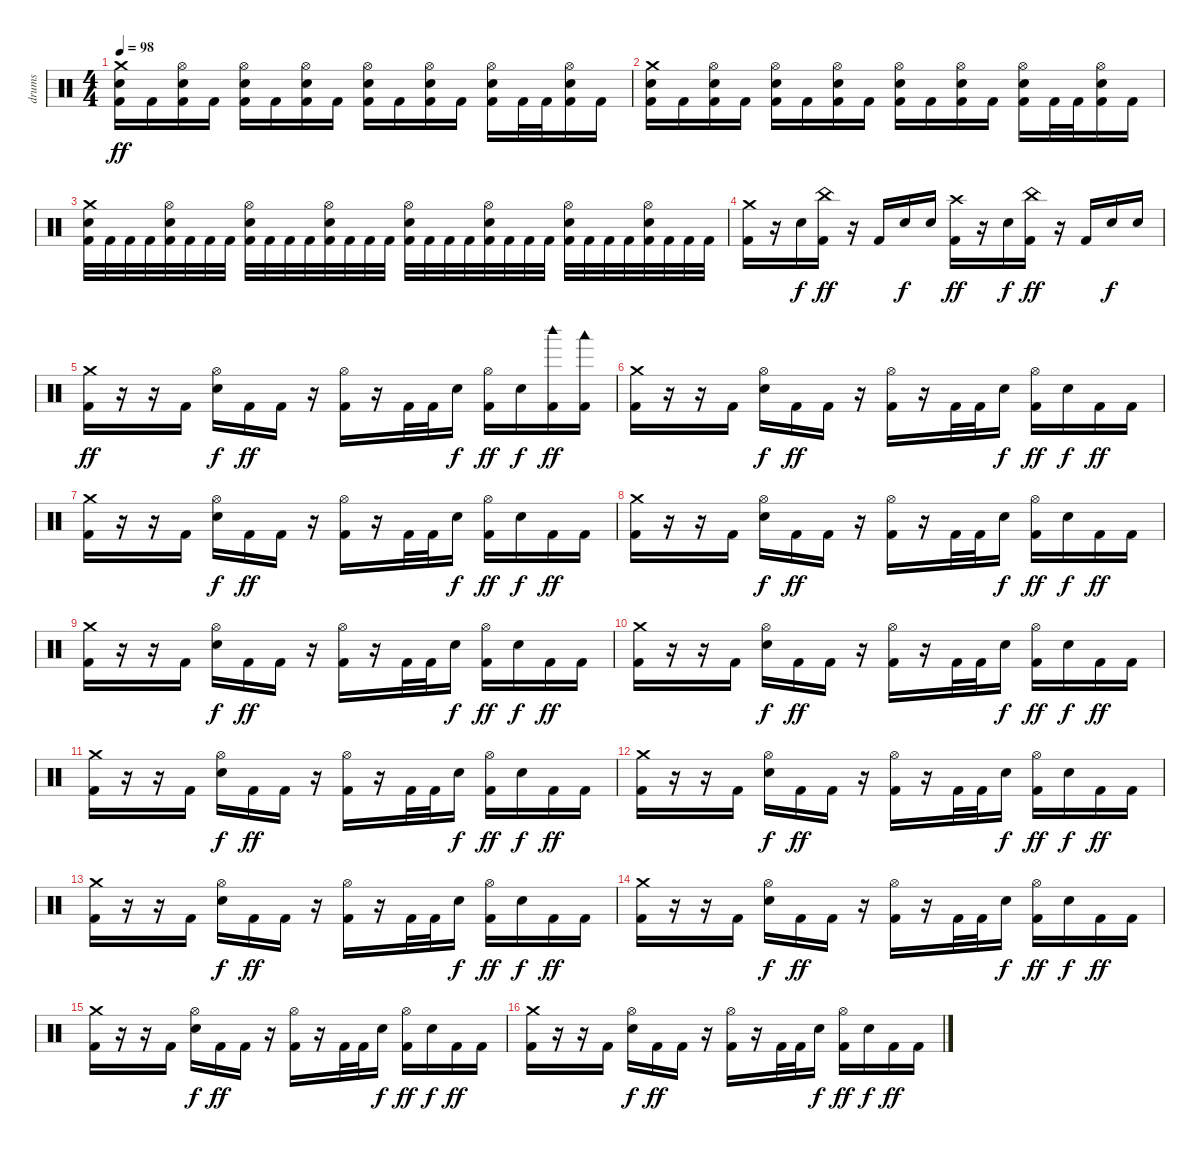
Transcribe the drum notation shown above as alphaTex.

\track ("drums" "drums") {instrument percussion}
\staff {score}
\articulation defaults
\ts (4 4)
\tempo 98
\clef neutral
\ks c
("Crash medium (hit)" "Electric Snare (hit)" "Kick (hit) 2").16{dy ff} "Kick (hit) 2".16 ("Hi-Hat (open)" "Electric Snare (hit)" "Kick (hit) 2").16 "Kick (hit) 2".16 ("Hi-Hat (open)" "Electric Snare (hit)" "Kick (hit) 2").16 "Kick (hit) 2".16 ("Hi-Hat (open)" "Electric Snare (hit)" "Kick (hit) 2").16 "Kick (hit) 2".16 ("Hi-Hat (open)" "Electric Snare (hit)" "Kick (hit) 2").16 "Kick (hit) 2".16 ("Hi-Hat (open)" "Electric Snare (hit)" "Kick (hit) 2").16 "Kick (hit) 2".16 ("Hi-Hat (open)" "Electric Snare (hit)" "Kick (hit) 2").16 "Kick (hit) 2".32 "Kick (hit) 2".32 ("Hi-Hat (open)" "Electric Snare (hit)" "Kick (hit) 2").16 "Kick (hit) 2".16 |
("Crash medium (hit)" "Electric Snare (hit)" "Kick (hit) 2").16 "Kick (hit) 2".16 ("Hi-Hat (open)" "Electric Snare (hit)" "Kick (hit) 2").16 "Kick (hit) 2".16 ("Hi-Hat (open)" "Electric Snare (hit)" "Kick (hit) 2").16 "Kick (hit) 2".16 ("Hi-Hat (open)" "Electric Snare (hit)" "Kick (hit) 2").16 "Kick (hit) 2".16 ("Hi-Hat (open)" "Electric Snare (hit)" "Kick (hit) 2").16 "Kick (hit) 2".16 ("Hi-Hat (open)" "Electric Snare (hit)" "Kick (hit) 2").16 "Kick (hit) 2".16 ("Hi-Hat (open)" "Electric Snare (hit)" "Kick (hit) 2").16 "Kick (hit) 2".32 "Kick (hit) 2".32 ("Hi-Hat (open)" "Electric Snare (hit)" "Kick (hit) 2").16 "Kick (hit) 2".16 |
("Crash medium (hit)" "Electric Snare (hit)" "Kick (hit) 2").32 "Kick (hit) 2".32 "Kick (hit) 2".32 "Kick (hit) 2".32 ("Hi-Hat (open)" "Electric Snare (hit)" "Kick (hit) 2").32 "Kick (hit) 2".32 "Kick (hit) 2".32 "Kick (hit) 2".32 ("Hi-Hat (open)" "Electric Snare (hit)" "Kick (hit) 2").32 "Kick (hit) 2".32 "Kick (hit) 2".32 "Kick (hit) 2".32 ("Hi-Hat (open)" "Electric Snare (hit)" "Kick (hit) 2").32 "Kick (hit) 2".32 "Kick (hit) 2".32 "Kick (hit) 2".32 ("Hi-Hat (open)" "Electric Snare (hit)" "Kick (hit) 2").32 "Kick (hit) 2".32 "Kick (hit) 2".32 "Kick (hit) 2".32 ("Hi-Hat (open)" "Electric Snare (hit)" "Kick (hit) 2").32 "Kick (hit) 2".32 "Kick (hit) 2".32 "Kick (hit) 2".32 ("Hi-Hat (open)" "Electric Snare (hit)" "Kick (hit) 2").32 "Kick (hit) 2".32 "Kick (hit) 2".32 "Kick (hit) 2".32 ("Hi-Hat (open)" "Electric Snare (hit)" "Kick (hit) 2").32 "Kick (hit) 2".32 "Kick (hit) 2".32 "Kick (hit) 2".32 |
("Crash medium (hit)" "Kick (hit) 2").16 r.16 "Electric Snare (hit)".16{dy f} ("China (hit)" "Kick (hit) 2").16{dy ff} r.16 "Kick (hit) 2".16 "Electric Snare (hit)".16{dy f} "Electric Snare (hit)".16 ("Crash high (hit)" "Kick (hit) 2").16{dy ff} r.16 "Electric Snare (hit)".16{dy f} ("China (hit)" "Kick (hit) 2").16{dy ff} r.16 "Kick (hit) 2".16 "Electric Snare (hit)".16{dy f} "Electric Snare (hit)".16 |
("Crash medium (hit)" "Kick (hit) 2").16{dy ff} r.16 r.16 "Kick (hit) 2".16 ("Hi-Hat (open)" "Electric Snare (hit)").16{dy f} "Kick (hit) 2".16{dy ff} "Kick (hit) 2".16 r.16 ("Hi-Hat (open)" "Kick (hit) 2").16 r.16 "Kick (hit) 2".32 "Kick (hit) 2".32 "Electric Snare (hit)".16{dy f} ("Hi-Hat (open)" "Kick (hit) 2").16{dy ff} "Electric Snare (hit)".16{dy f} ("Woodblock high (hit)" "Kick (hit) 2").16{dy ff} ("Woodblock low (hit)" "Kick (hit) 2").16 |
("Crash medium (hit)" "Kick (hit) 2").16 r.16 r.16 "Kick (hit) 2".16 ("Hi-Hat (open)" "Electric Snare (hit)").16{dy f} "Kick (hit) 2".16{dy ff} "Kick (hit) 2".16 r.16 ("Hi-Hat (open)" "Kick (hit) 2").16 r.16 "Kick (hit) 2".32 "Kick (hit) 2".32 "Electric Snare (hit)".16{dy f} ("Hi-Hat (open)" "Kick (hit) 2").16{dy ff} "Electric Snare (hit)".16{dy f} "Kick (hit) 2".16{dy ff} "Kick (hit) 2".16 |
("Crash medium (hit)" "Kick (hit) 2").16 r.16 r.16 "Kick (hit) 2".16 ("Hi-Hat (open)" "Electric Snare (hit)").16{dy f} "Kick (hit) 2".16{dy ff} "Kick (hit) 2".16 r.16 ("Hi-Hat (open)" "Kick (hit) 2").16 r.16 "Kick (hit) 2".32 "Kick (hit) 2".32 "Electric Snare (hit)".16{dy f} ("Hi-Hat (open)" "Kick (hit) 2").16{dy ff} "Electric Snare (hit)".16{dy f} "Kick (hit) 2".16{dy ff} "Kick (hit) 2".16 |
("Crash medium (hit)" "Kick (hit) 2").16 r.16 r.16 "Kick (hit) 2".16 ("Hi-Hat (open)" "Electric Snare (hit)").16{dy f} "Kick (hit) 2".16{dy ff} "Kick (hit) 2".16 r.16 ("Hi-Hat (open)" "Kick (hit) 2").16 r.16 "Kick (hit) 2".32 "Kick (hit) 2".32 "Electric Snare (hit)".16{dy f} ("Hi-Hat (open)" "Kick (hit) 2").16{dy ff} "Electric Snare (hit)".16{dy f} "Kick (hit) 2".16{dy ff} "Kick (hit) 2".16 |
("Crash medium (hit)" "Kick (hit) 2").16 r.16 r.16 "Kick (hit) 2".16 ("Hi-Hat (open)" "Electric Snare (hit)").16{dy f} "Kick (hit) 2".16{dy ff} "Kick (hit) 2".16 r.16 ("Hi-Hat (open)" "Kick (hit) 2").16 r.16 "Kick (hit) 2".32 "Kick (hit) 2".32 "Electric Snare (hit)".16{dy f} ("Hi-Hat (open)" "Kick (hit) 2").16{dy ff} "Electric Snare (hit)".16{dy f} "Kick (hit) 2".16{dy ff} "Kick (hit) 2".16 |
("Crash medium (hit)" "Kick (hit) 2").16 r.16 r.16 "Kick (hit) 2".16 ("Hi-Hat (open)" "Electric Snare (hit)").16{dy f} "Kick (hit) 2".16{dy ff} "Kick (hit) 2".16 r.16 ("Hi-Hat (open)" "Kick (hit) 2").16 r.16 "Kick (hit) 2".32 "Kick (hit) 2".32 "Electric Snare (hit)".16{dy f} ("Hi-Hat (open)" "Kick (hit) 2").16{dy ff} "Electric Snare (hit)".16{dy f} "Kick (hit) 2".16{dy ff} "Kick (hit) 2".16 |
("Crash medium (hit)" "Kick (hit) 2").16 r.16 r.16 "Kick (hit) 2".16 ("Hi-Hat (open)" "Electric Snare (hit)").16{dy f} "Kick (hit) 2".16{dy ff} "Kick (hit) 2".16 r.16 ("Hi-Hat (open)" "Kick (hit) 2").16 r.16 "Kick (hit) 2".32 "Kick (hit) 2".32 "Electric Snare (hit)".16{dy f} ("Hi-Hat (open)" "Kick (hit) 2").16{dy ff} "Electric Snare (hit)".16{dy f} "Kick (hit) 2".16{dy ff} "Kick (hit) 2".16 |
("Crash medium (hit)" "Kick (hit) 2").16 r.16 r.16 "Kick (hit) 2".16 ("Hi-Hat (open)" "Electric Snare (hit)").16{dy f} "Kick (hit) 2".16{dy ff} "Kick (hit) 2".16 r.16 ("Hi-Hat (open)" "Kick (hit) 2").16 r.16 "Kick (hit) 2".32 "Kick (hit) 2".32 "Electric Snare (hit)".16{dy f} ("Hi-Hat (open)" "Kick (hit) 2").16{dy ff} "Electric Snare (hit)".16{dy f} "Kick (hit) 2".16{dy ff} "Kick (hit) 2".16 |
("Crash medium (hit)" "Kick (hit) 2").16 r.16 r.16 "Kick (hit) 2".16 ("Hi-Hat (open)" "Electric Snare (hit)").16{dy f} "Kick (hit) 2".16{dy ff} "Kick (hit) 2".16 r.16 ("Hi-Hat (open)" "Kick (hit) 2").16 r.16 "Kick (hit) 2".32 "Kick (hit) 2".32 "Electric Snare (hit)".16{dy f} ("Hi-Hat (open)" "Kick (hit) 2").16{dy ff} "Electric Snare (hit)".16{dy f} "Kick (hit) 2".16{dy ff} "Kick (hit) 2".16 |
("Crash medium (hit)" "Kick (hit) 2").16 r.16 r.16 "Kick (hit) 2".16 ("Hi-Hat (open)" "Electric Snare (hit)").16{dy f} "Kick (hit) 2".16{dy ff} "Kick (hit) 2".16 r.16 ("Hi-Hat (open)" "Kick (hit) 2").16 r.16 "Kick (hit) 2".32 "Kick (hit) 2".32 "Electric Snare (hit)".16{dy f} ("Hi-Hat (open)" "Kick (hit) 2").16{dy ff} "Electric Snare (hit)".16{dy f} "Kick (hit) 2".16{dy ff} "Kick (hit) 2".16 |
("Crash medium (hit)" "Kick (hit) 2").16 r.16 r.16 "Kick (hit) 2".16 ("Hi-Hat (open)" "Electric Snare (hit)").16{dy f} "Kick (hit) 2".16{dy ff} "Kick (hit) 2".16 r.16 ("Hi-Hat (open)" "Kick (hit) 2").16 r.16 "Kick (hit) 2".32 "Kick (hit) 2".32 "Electric Snare (hit)".16{dy f} ("Hi-Hat (open)" "Kick (hit) 2").16{dy ff} "Electric Snare (hit)".16{dy f} "Kick (hit) 2".16{dy ff} "Kick (hit) 2".16 |
("Crash medium (hit)" "Kick (hit) 2").16 r.16 r.16 "Kick (hit) 2".16 ("Hi-Hat (open)" "Electric Snare (hit)").16{dy f} "Kick (hit) 2".16{dy ff} "Kick (hit) 2".16 r.16 ("Hi-Hat (open)" "Kick (hit) 2").16 r.16 "Kick (hit) 2".32 "Kick (hit) 2".32 "Electric Snare (hit)".16{dy f} ("Hi-Hat (open)" "Kick (hit) 2").16{dy ff} "Electric Snare (hit)".16{dy f} "Kick (hit) 2".16{dy ff} "Kick (hit) 2".16
